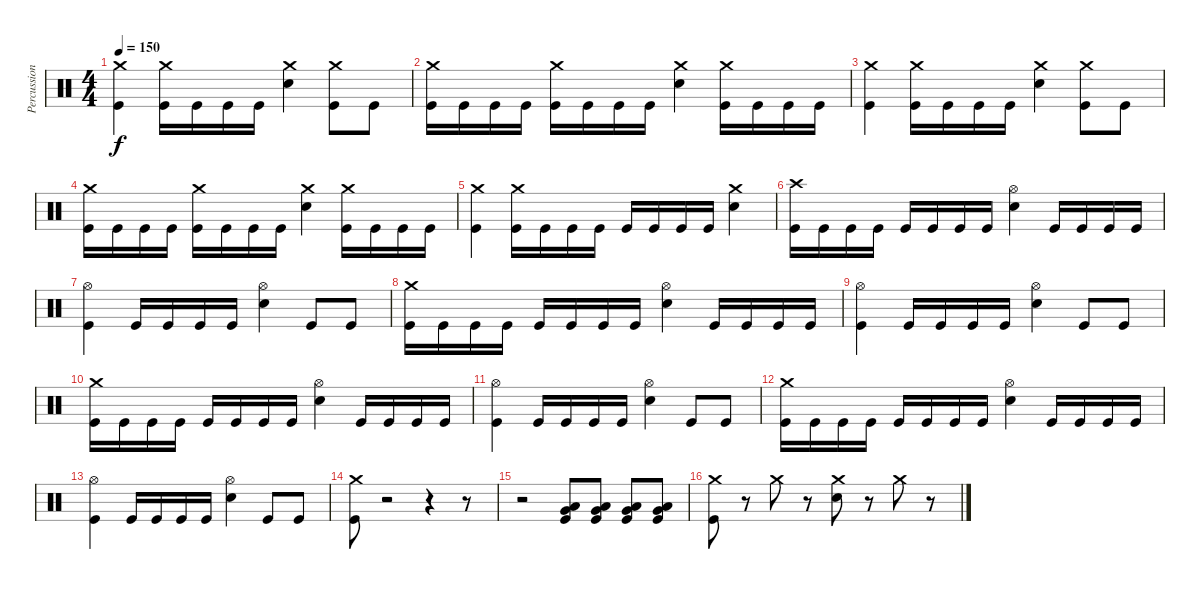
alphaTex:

\track ("Percussion" "Percussion") {instrument percussion}
\staff {score}
\articulation defaults
\ts (4 4)
\tempo 150
\clef neutral
\ks c
("Crash medium (hit)" "Kick (hit)").4{dy f} ("Crash medium (hit)" "Kick (hit)").16 "Kick (hit)".16 "Kick (hit)".16 "Kick (hit)".16 ("Crash medium (hit)" "Snare (hit) 2").4 ("Crash medium (hit)" "Kick (hit)").8 "Kick (hit)".8 |
("Crash medium (hit)" "Kick (hit)").16 "Kick (hit)".16 "Kick (hit)".16 "Kick (hit)".16 ("Crash medium (hit)" "Kick (hit)").16 "Kick (hit)".16 "Kick (hit)".16 "Kick (hit)".16 ("Crash medium (hit)" "Snare (hit) 2").4 ("Crash medium (hit)" "Kick (hit)").16 "Kick (hit)".16 "Kick (hit)".16 "Kick (hit)".16 |
("Crash medium (hit)" "Kick (hit)").4 ("Crash medium (hit)" "Kick (hit)").16 "Kick (hit)".16 "Kick (hit)".16 "Kick (hit)".16 ("Crash medium (hit)" "Snare (hit) 2").4 ("Crash medium (hit)" "Kick (hit)").8 "Kick (hit)".8 |
("Crash medium (hit)" "Kick (hit)").16 "Kick (hit)".16 "Kick (hit)".16 "Kick (hit)".16 ("Crash medium (hit)" "Kick (hit)").16 "Kick (hit)".16 "Kick (hit)".16 "Kick (hit)".16 ("Crash medium (hit)" "Snare (hit) 2").4 ("Crash medium (hit)" "Kick (hit)").16 "Kick (hit)".16 "Kick (hit)".16 "Kick (hit)".16 |
("Crash medium (hit)" "Kick (hit)").4 ("Crash medium (hit)" "Kick (hit)").16 "Kick (hit)".16 "Kick (hit)".16 "Kick (hit)".16 "Kick (hit)".16 "Kick (hit)".16 "Kick (hit)".16 "Kick (hit)".16 ("Crash medium (hit)" "Snare (hit) 2").4 |
("Crash high (hit)" "Kick (hit)").16 "Kick (hit)".16 "Kick (hit)".16 "Kick (hit)".16 "Kick (hit)".16 "Kick (hit)".16 "Kick (hit)".16 "Kick (hit)".16 ("Hi-Hat (open)" "Snare (hit) 2").4 "Kick (hit)".16 "Kick (hit)".16 "Kick (hit)".16 "Kick (hit)".16 |
("Hi-Hat (open)" "Kick (hit)").4 "Kick (hit)".16 "Kick (hit)".16 "Kick (hit)".16 "Kick (hit)".16 ("Hi-Hat (open)" "Snare (hit) 2").4 "Kick (hit)".8 "Kick (hit)".8 |
("Crash medium (hit)" "Kick (hit)").16 "Kick (hit)".16 "Kick (hit)".16 "Kick (hit)".16 "Kick (hit)".16 "Kick (hit)".16 "Kick (hit)".16 "Kick (hit)".16 ("Hi-Hat (open)" "Snare (hit) 2").4 "Kick (hit)".16 "Kick (hit)".16 "Kick (hit)".16 "Kick (hit)".16 |
("Hi-Hat (open)" "Kick (hit)").4 "Kick (hit)".16 "Kick (hit)".16 "Kick (hit)".16 "Kick (hit)".16 ("Hi-Hat (open)" "Snare (hit) 2").4 "Kick (hit)".8 "Kick (hit)".8 |
("Crash medium (hit)" "Kick (hit)").16 "Kick (hit)".16 "Kick (hit)".16 "Kick (hit)".16 "Kick (hit)".16 "Kick (hit)".16 "Kick (hit)".16 "Kick (hit)".16 ("Hi-Hat (open)" "Snare (hit) 2").4 "Kick (hit)".16 "Kick (hit)".16 "Kick (hit)".16 "Kick (hit)".16 |
("Hi-Hat (open)" "Kick (hit)").4 "Kick (hit)".16 "Kick (hit)".16 "Kick (hit)".16 "Kick (hit)".16 ("Hi-Hat (open)" "Snare (hit) 2").4 "Kick (hit)".8 "Kick (hit)".8 |
("Crash medium (hit)" "Kick (hit)").16 "Kick (hit)".16 "Kick (hit)".16 "Kick (hit)".16 "Kick (hit)".16 "Kick (hit)".16 "Kick (hit)".16 "Kick (hit)".16 ("Hi-Hat (open)" "Snare (hit) 2").4 "Kick (hit)".16 "Kick (hit)".16 "Kick (hit)".16 "Kick (hit)".16 |
("Hi-Hat (open)" "Kick (hit)").4 "Kick (hit)".16 "Kick (hit)".16 "Kick (hit)".16 "Kick (hit)".16 ("Hi-Hat (open)" "Snare (hit) 2").4 "Kick (hit)".8 "Kick (hit)".8 |
("Crash medium (hit)" "Kick (hit)").8 r.2 r.4 r.8 |
r.2 ("Very Low Tom (hit)" "Low Floor Tom (hit)" "Kick (hit)").8 ("Very Low Tom (hit)" "Low Floor Tom (hit)" "Kick (hit)").8 ("Very Low Tom (hit)" "Low Floor Tom (hit)" "Kick (hit)").8 ("Very Low Tom (hit)" "Low Floor Tom (hit)" "Kick (hit)").8 |
("Crash medium (hit)" "Kick (hit)").8 r.8 "Crash medium (hit)".8 r.8 ("Crash medium (hit)" "Snare (hit) 2").8 r.8 "Crash medium (hit)".8 r.8
